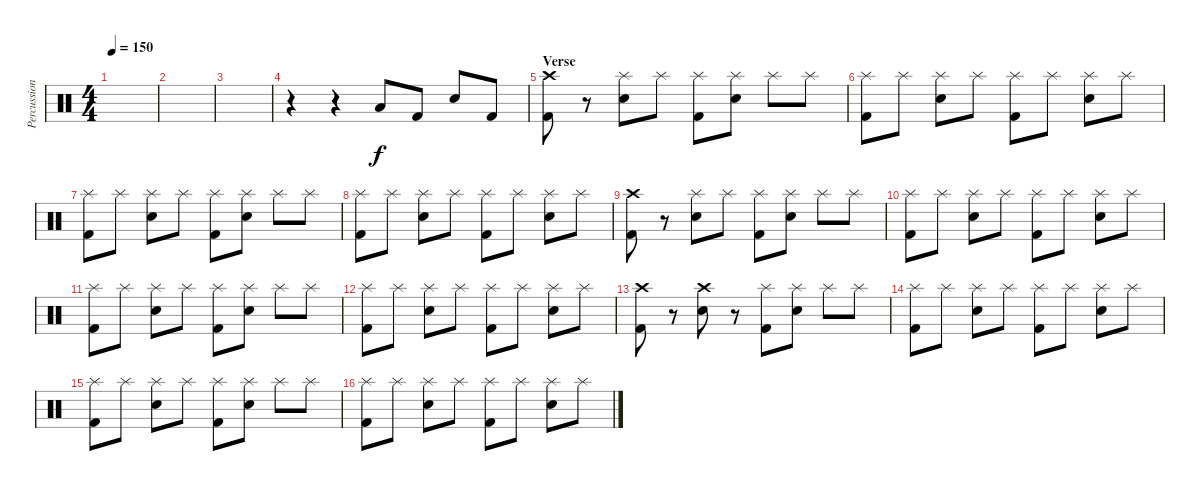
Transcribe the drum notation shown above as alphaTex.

\track ("Percussion" "Percussion") {instrument percussion}
\staff {score}
\articulation defaults
\ts (4 4)
\tempo 150
\clef neutral
\ks c
|
|
|
r.4 r.4 "Low Floor Tom (hit)".8 "Kick (hit) 2".8{dy f} "Electric Snare (hit)".8 "Kick (hit) 2".8 |
\section ("" "Verse")
("Crash high (hit)" "Kick (hit) 2").8 r.8 ("Splash (hit)" "Electric Snare (hit)").8 "Splash (hit)".8 ("Splash (hit)" "Kick (hit) 2").8 ("Splash (hit)" "Electric Snare (hit)").8 "Splash (hit)".8 "Splash (hit)".8 |
("Splash (hit)" "Kick (hit) 2").8 "Splash (hit)".8 ("Splash (hit)" "Electric Snare (hit)").8 "Splash (hit)".8 ("Splash (hit)" "Kick (hit) 2").8 "Splash (hit)".8 ("Splash (hit)" "Electric Snare (hit)").8 "Splash (hit)".8 |
("Splash (hit)" "Kick (hit) 2").8 "Splash (hit)".8 ("Splash (hit)" "Electric Snare (hit)").8 "Splash (hit)".8 ("Splash (hit)" "Kick (hit) 2").8 ("Splash (hit)" "Electric Snare (hit)").8 "Splash (hit)".8 "Splash (hit)".8 |
("Splash (hit)" "Kick (hit) 2").8 "Splash (hit)".8 ("Splash (hit)" "Electric Snare (hit)").8 "Splash (hit)".8 ("Splash (hit)" "Kick (hit) 2").8 "Splash (hit)".8 ("Splash (hit)" "Electric Snare (hit)").8 "Splash (hit)".8 |
("Crash high (hit)" "Kick (hit) 2").8 r.8 ("Splash (hit)" "Electric Snare (hit)").8 "Splash (hit)".8 ("Splash (hit)" "Kick (hit) 2").8 ("Splash (hit)" "Electric Snare (hit)").8 "Splash (hit)".8 "Splash (hit)".8 |
("Splash (hit)" "Kick (hit) 2").8 "Splash (hit)".8 ("Splash (hit)" "Electric Snare (hit)").8 "Splash (hit)".8 ("Splash (hit)" "Kick (hit) 2").8 "Splash (hit)".8 ("Splash (hit)" "Electric Snare (hit)").8 "Splash (hit)".8 |
("Splash (hit)" "Kick (hit) 2").8 "Splash (hit)".8 ("Splash (hit)" "Electric Snare (hit)").8 "Splash (hit)".8 ("Splash (hit)" "Kick (hit) 2").8 ("Splash (hit)" "Electric Snare (hit)").8 "Splash (hit)".8 "Splash (hit)".8 |
("Splash (hit)" "Kick (hit) 2").8 "Splash (hit)".8 ("Splash (hit)" "Electric Snare (hit)").8 "Splash (hit)".8 ("Splash (hit)" "Kick (hit) 2").8 "Splash (hit)".8 ("Splash (hit)" "Electric Snare (hit)").8 "Splash (hit)".8 |
("Crash high (hit)" "Kick (hit) 2").8 r.8 ("Crash high (hit)" "Electric Snare (hit)").8 r.8 ("Splash (hit)" "Kick (hit) 2").8 ("Splash (hit)" "Electric Snare (hit)").8 "Splash (hit)".8 "Splash (hit)".8 |
("Splash (hit)" "Kick (hit) 2").8 "Splash (hit)".8 ("Splash (hit)" "Electric Snare (hit)").8 "Splash (hit)".8 ("Splash (hit)" "Kick (hit) 2").8 "Splash (hit)".8 ("Splash (hit)" "Electric Snare (hit)").8 "Splash (hit)".8 |
("Splash (hit)" "Kick (hit) 2").8 "Splash (hit)".8 ("Splash (hit)" "Electric Snare (hit)").8 "Splash (hit)".8 ("Splash (hit)" "Kick (hit) 2").8 ("Splash (hit)" "Electric Snare (hit)").8 "Splash (hit)".8 "Splash (hit)".8 |
("Splash (hit)" "Kick (hit) 2").8 "Splash (hit)".8 ("Splash (hit)" "Electric Snare (hit)").8 "Splash (hit)".8 ("Splash (hit)" "Kick (hit) 2").8 "Splash (hit)".8 ("Splash (hit)" "Electric Snare (hit)").8 "Splash (hit)".8
